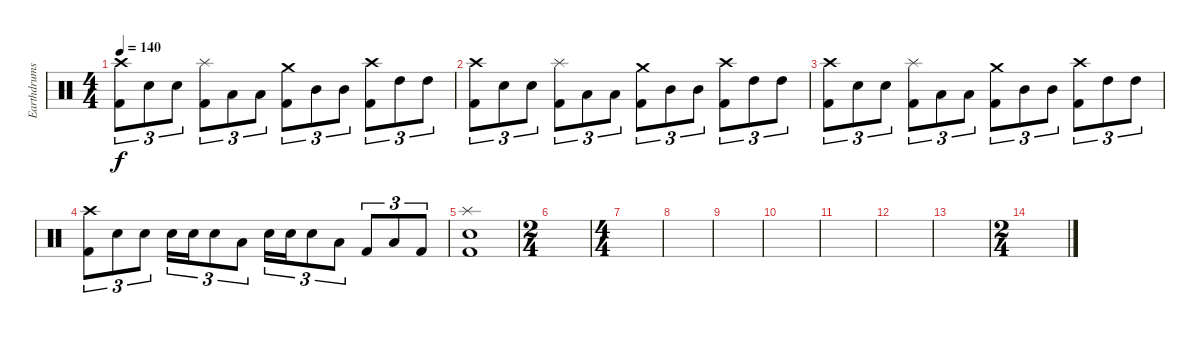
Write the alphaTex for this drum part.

\track ("Earthdrums" "Earthdrums") {instrument percussion}
\staff {score}
\articulation defaults
\ts (4 4)
\tempo 140
\clef neutral
\ks c
("Crash high (hit)" "Kick (hit) 2").8{tu (3 2) dy f} "Snare (hit) 2".8{tu (3 2)} "Snare (hit) 2".8{tu (3 2)} ("Splash (hit)" "Kick (hit) 2").8{tu (3 2)} "Low Tom (hit)".8{tu (3 2)} "Low Tom (hit)".8{tu (3 2)} ("Crash medium (hit)" "Kick (hit) 2").8{tu (3 2)} "Mid Tom (hit)".8{tu (3 2)} "Mid Tom (hit)".8{tu (3 2)} ("Crash high (hit)" "Kick (hit) 2").8{tu (3 2)} "High Tom (hit)".8{tu (3 2)} "High Tom (hit)".8{tu (3 2)} |
("Crash high (hit)" "Kick (hit) 2").8{tu (3 2)} "Snare (hit) 2".8{tu (3 2)} "Snare (hit) 2".8{tu (3 2)} ("Splash (hit)" "Kick (hit) 2").8{tu (3 2)} "Low Tom (hit)".8{tu (3 2)} "Low Tom (hit)".8{tu (3 2)} ("Crash medium (hit)" "Kick (hit) 2").8{tu (3 2)} "Mid Tom (hit)".8{tu (3 2)} "Mid Tom (hit)".8{tu (3 2)} ("Crash high (hit)" "Kick (hit) 2").8{tu (3 2)} "High Tom (hit)".8{tu (3 2)} "High Tom (hit)".8{tu (3 2)} |
("Crash high (hit)" "Kick (hit) 2").8{tu (3 2)} "Snare (hit) 2".8{tu (3 2)} "Snare (hit) 2".8{tu (3 2)} ("Splash (hit)" "Kick (hit) 2").8{tu (3 2)} "Low Tom (hit)".8{tu (3 2)} "Low Tom (hit)".8{tu (3 2)} ("Crash medium (hit)" "Kick (hit) 2").8{tu (3 2)} "Mid Tom (hit)".8{tu (3 2)} "Mid Tom (hit)".8{tu (3 2)} ("Crash high (hit)" "Kick (hit) 2").8{tu (3 2)} "High Tom (hit)".8{tu (3 2)} "High Tom (hit)".8{tu (3 2)} |
("Crash high (hit)" "Kick (hit) 2").8{tu (3 2)} "Snare (hit) 2".8{tu (3 2)} "Snare (hit) 2".8{tu (3 2)} "Snare (hit) 2".16{tu (3 2)} "Snare (hit) 2".16{tu (3 2)} "Snare (hit) 2".8{tu (3 2)} "Low Tom (hit)".8{tu (3 2)} "Snare (hit) 2".16{tu (3 2)} "Snare (hit) 2".16{tu (3 2)} "Snare (hit) 2".8{tu (3 2)} "Low Tom (hit)".8{tu (3 2)} "Kick (hit) 2".8{tu (3 2)} "Low Tom (hit)".8{tu (3 2)} "Kick (hit) 2".8{tu (3 2)} |
("Splash (hit)" "Snare (hit) 2" "Kick (hit) 2").1 |
\ts (2 4)
|
\ts (4 4)
|
|
|
|
|
|
|
\ts (2 4)
